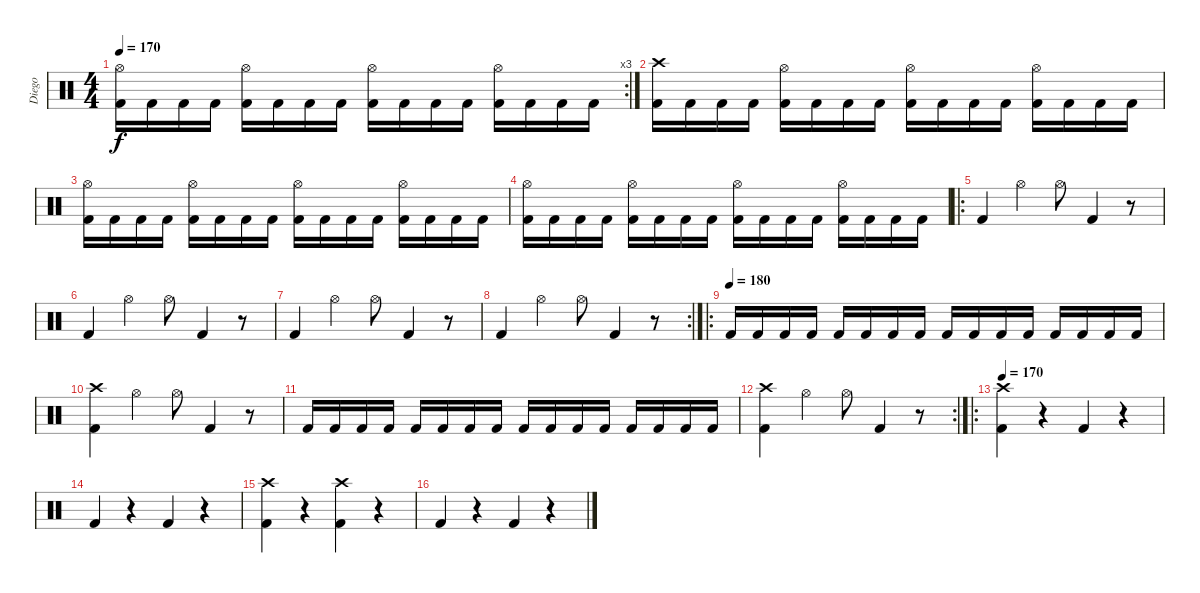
\track ("Diego" "Diego") {instrument percussion}
\staff {score}
\articulation defaults
\rc 3
\ts (4 4)
\tempo 170
\clef neutral
\ks c
("Kick (hit) 2" "Hi-Hat (open)").16{dy f} "Kick (hit) 2".16 "Kick (hit) 2".16 "Kick (hit) 2".16 ("Kick (hit) 2" "Hi-Hat (open)").16 "Kick (hit) 2".16 "Kick (hit) 2".16 "Kick (hit) 2".16 ("Kick (hit) 2" "Hi-Hat (open)").16 "Kick (hit) 2".16 "Kick (hit) 2".16 "Kick (hit) 2".16 ("Kick (hit) 2" "Hi-Hat (open)").16 "Kick (hit) 2".16 "Kick (hit) 2".16 "Kick (hit) 2".16 |
("Kick (hit) 2" "Crash high (hit)").16 "Kick (hit) 2".16 "Kick (hit) 2".16 "Kick (hit) 2".16 ("Kick (hit) 2" "Hi-Hat (open)").16 "Kick (hit) 2".16 "Kick (hit) 2".16 "Kick (hit) 2".16 ("Kick (hit) 2" "Hi-Hat (open)").16 "Kick (hit) 2".16 "Kick (hit) 2".16 "Kick (hit) 2".16 ("Kick (hit) 2" "Hi-Hat (open)").16 "Kick (hit) 2".16 "Kick (hit) 2".16 "Kick (hit) 2".16 |
("Kick (hit) 2" "Hi-Hat (open)").16 "Kick (hit) 2".16 "Kick (hit) 2".16 "Kick (hit) 2".16 ("Kick (hit) 2" "Hi-Hat (open)").16 "Kick (hit) 2".16 "Kick (hit) 2".16 "Kick (hit) 2".16 ("Kick (hit) 2" "Hi-Hat (open)").16 "Kick (hit) 2".16 "Kick (hit) 2".16 "Kick (hit) 2".16 ("Kick (hit) 2" "Hi-Hat (open)").16 "Kick (hit) 2".16 "Kick (hit) 2".16 "Kick (hit) 2".16 |
("Kick (hit) 2" "Hi-Hat (open)").16 "Kick (hit) 2".16 "Kick (hit) 2".16 "Kick (hit) 2".16 ("Kick (hit) 2" "Hi-Hat (open)").16 "Kick (hit) 2".16 "Kick (hit) 2".16 "Kick (hit) 2".16 ("Kick (hit) 2" "Hi-Hat (open)").16 "Kick (hit) 2".16 "Kick (hit) 2".16 "Kick (hit) 2".16 ("Kick (hit) 2" "Hi-Hat (open)").16 "Kick (hit) 2".16 "Kick (hit) 2".16 "Kick (hit) 2".16 |
\ro "Kick (hit) 2".4 "Hi-Hat (open)".4 "Hi-Hat (open)".8 "Kick (hit) 2".4
r.8 |
"Kick (hit) 2".4 "Hi-Hat (open)".4 "Hi-Hat (open)".8 "Kick (hit) 2".4 r.8 |
"Kick (hit) 2".4 "Hi-Hat (open)".4 "Hi-Hat (open)".8 "Kick (hit) 2".4 r.8 |
\rc 2 "Kick (hit) 2".4 "Hi-Hat (open)".4 "Hi-Hat (open)".8 "Kick (hit) 2".4
r.8 |
\ro
\tempo (180)
"Kick (hit) 2".16 "Kick (hit) 2".16 "Kick (hit) 2".16 "Kick (hit) 2".16 "Kick (hit) 2".16 "Kick (hit) 2".16 "Kick (hit) 2".16 "Kick (hit) 2".16 "Kick (hit) 2".16 "Kick (hit) 2".16 "Kick (hit) 2".16 "Kick (hit) 2".16 "Kick (hit) 2".16 "Kick (hit) 2".16 "Kick (hit) 2".16 "Kick (hit) 2".16 |
("Kick (hit) 2" "Crash high (hit)").4 "Hi-Hat (open)".4 "Hi-Hat (open)".8 "Kick (hit) 2".4 r.8 |
"Kick (hit) 2".16 "Kick (hit) 2".16 "Kick (hit) 2".16 "Kick (hit) 2".16 "Kick (hit) 2".16 "Kick (hit) 2".16 "Kick (hit) 2".16 "Kick (hit) 2".16 "Kick (hit) 2".16 "Kick (hit) 2".16 "Kick (hit) 2".16 "Kick (hit) 2".16 "Kick (hit) 2".16 "Kick (hit) 2".16 "Kick (hit) 2".16 "Kick (hit) 2".16 |
\rc 2
("Kick (hit) 2" "Crash high (hit)").4 "Hi-Hat (open)".4 "Hi-Hat (open)".8 "Kick (hit) 2".4 r.8 |
\ro
\tempo 170
("Crash high (hit)" "Kick (hit) 2").4 r.4 "Kick (hit) 2".4 r.4 |
"Kick (hit) 2".4 r.4 "Kick (hit) 2".4 r.4 |
("Crash high (hit)" "Kick (hit) 2").4 r.4 ("Crash high (hit)" "Kick (hit) 2").4 r.4 |
"Kick (hit) 2".4 r.4 "Kick (hit) 2".4 r.4
